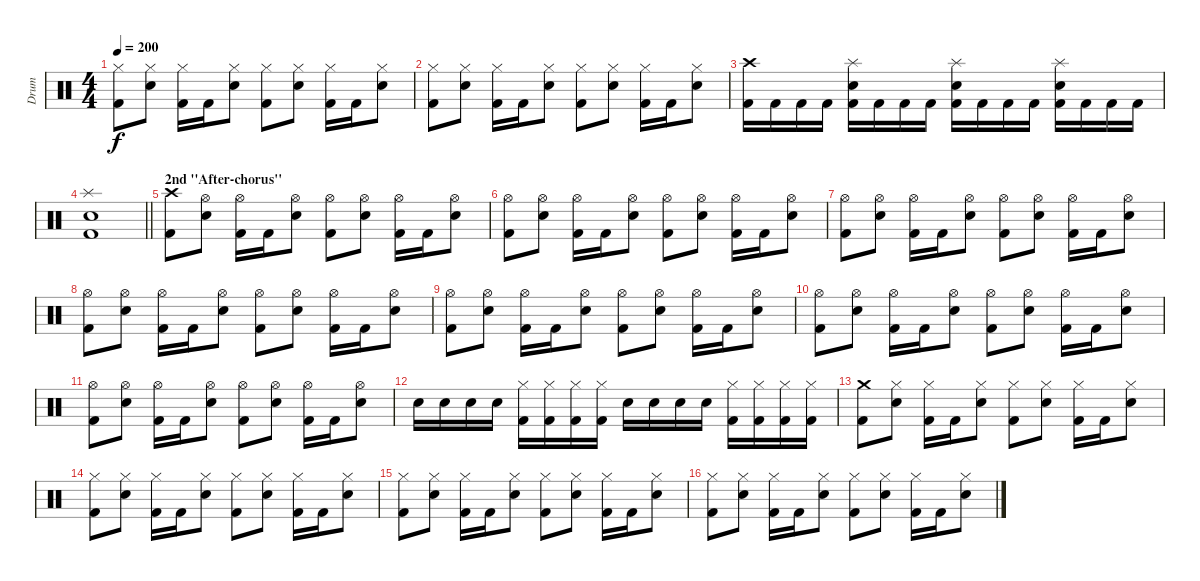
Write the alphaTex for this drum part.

\track ("Drum" "Drum") {instrument percussion}
\staff {score}
\articulation defaults
\ts (4 4)
\tempo 200
\clef neutral
\ks c
("Kick (hit) 2" "Hi-Hat (closed)").8{dy f} ("Snare (hit) 2" "Hi-Hat (closed)").8 ("Kick (hit) 2" "Hi-Hat (closed)").16 "Kick (hit) 2".16 ("Snare (hit) 2" "Hi-Hat (closed)").8 ("Kick (hit) 2" "Hi-Hat (closed)").8 ("Snare (hit) 2" "Hi-Hat (closed)").8 ("Kick (hit) 2" "Hi-Hat (closed)").16 "Kick (hit) 2".16 ("Snare (hit) 2" "Hi-Hat (closed)").8 |
("Kick (hit) 2" "Hi-Hat (closed)").8 ("Snare (hit) 2" "Hi-Hat (closed)").8 ("Kick (hit) 2" "Hi-Hat (closed)").16 "Kick (hit) 2".16 ("Snare (hit) 2" "Hi-Hat (closed)").8 ("Kick (hit) 2" "Hi-Hat (closed)").8 ("Snare (hit) 2" "Hi-Hat (closed)").8 ("Kick (hit) 2" "Hi-Hat (closed)").16 "Kick (hit) 2".16 ("Snare (hit) 2" "Hi-Hat (closed)").8 |
("Kick (hit) 2" "Crash high (hit)").16 "Kick (hit) 2".16 "Kick (hit) 2".16 "Kick (hit) 2".16 ("Kick (hit) 2" "Snare (hit) 2" "Splash (hit)").16 "Kick (hit) 2".16 "Kick (hit) 2".16 "Kick (hit) 2".16 ("Kick (hit) 2" "Snare (hit) 2" "Splash (hit)").16 "Kick (hit) 2".16 "Kick (hit) 2".16 "Kick (hit) 2".16 ("Kick (hit) 2" "Snare (hit) 2" "Splash (hit)").16 "Kick (hit) 2".16 "Kick (hit) 2".16 "Kick (hit) 2".16 |
\barLineRight lightlight
("Kick (hit) 2" "Snare (hit) 2" "Splash (hit)").1 |
\section ("" "2nd ''After-chorus''")
("Kick (hit) 2" "Crash high (hit)").8 ("Snare (hit) 2" "Hi-Hat (open)").8 ("Kick (hit) 2" "Hi-Hat (open)").16 "Kick (hit) 2".16 ("Snare (hit) 2" "Hi-Hat (open)").8 ("Kick (hit) 2" "Hi-Hat (open)").8 ("Snare (hit) 2" "Hi-Hat (open)").8 ("Kick (hit) 2" "Hi-Hat (open)").16 "Kick (hit) 2".16 ("Snare (hit) 2" "Hi-Hat (open)").8 |
("Kick (hit) 2" "Hi-Hat (open)").8 ("Snare (hit) 2" "Hi-Hat (open)").8 ("Kick (hit) 2" "Hi-Hat (open)").16 "Kick (hit) 2".16 ("Snare (hit) 2" "Hi-Hat (open)").8 ("Kick (hit) 2" "Hi-Hat (open)").8 ("Snare (hit) 2" "Hi-Hat (open)").8 ("Kick (hit) 2" "Hi-Hat (open)").16 "Kick (hit) 2".16 ("Snare (hit) 2" "Hi-Hat (open)").8 |
("Kick (hit) 2" "Hi-Hat (open)").8 ("Snare (hit) 2" "Hi-Hat (open)").8 ("Kick (hit) 2" "Hi-Hat (open)").16 "Kick (hit) 2".16 ("Snare (hit) 2" "Hi-Hat (open)").8 ("Kick (hit) 2" "Hi-Hat (open)").8 ("Snare (hit) 2" "Hi-Hat (open)").8 ("Kick (hit) 2" "Hi-Hat (open)").16 "Kick (hit) 2".16 ("Snare (hit) 2" "Hi-Hat (open)").8 |
("Kick (hit) 2" "Hi-Hat (open)").8 ("Snare (hit) 2" "Hi-Hat (open)").8 ("Kick (hit) 2" "Hi-Hat (open)").16 "Kick (hit) 2".16 ("Snare (hit) 2" "Hi-Hat (open)").8 ("Kick (hit) 2" "Hi-Hat (open)").8 ("Snare (hit) 2" "Hi-Hat (open)").8 ("Kick (hit) 2" "Hi-Hat (open)").16 "Kick (hit) 2".16 ("Snare (hit) 2" "Hi-Hat (open)").8 |
("Kick (hit) 2" "Hi-Hat (open)").8 ("Snare (hit) 2" "Hi-Hat (open)").8 ("Kick (hit) 2" "Hi-Hat (open)").16 "Kick (hit) 2".16 ("Snare (hit) 2" "Hi-Hat (open)").8 ("Kick (hit) 2" "Hi-Hat (open)").8 ("Snare (hit) 2" "Hi-Hat (open)").8 ("Kick (hit) 2" "Hi-Hat (open)").16 "Kick (hit) 2".16 ("Snare (hit) 2" "Hi-Hat (open)").8 |
("Kick (hit) 2" "Hi-Hat (open)").8 ("Snare (hit) 2" "Hi-Hat (open)").8 ("Kick (hit) 2" "Hi-Hat (open)").16 "Kick (hit) 2".16 ("Snare (hit) 2" "Hi-Hat (open)").8 ("Kick (hit) 2" "Hi-Hat (open)").8 ("Snare (hit) 2" "Hi-Hat (open)").8 ("Kick (hit) 2" "Hi-Hat (open)").16 "Kick (hit) 2".16 ("Snare (hit) 2" "Hi-Hat (open)").8 |
("Kick (hit) 2" "Hi-Hat (open)").8 ("Snare (hit) 2" "Hi-Hat (open)").8 ("Kick (hit) 2" "Hi-Hat (open)").16 "Kick (hit) 2".16 ("Snare (hit) 2" "Hi-Hat (open)").8 ("Kick (hit) 2" "Hi-Hat (open)").8 ("Snare (hit) 2" "Hi-Hat (open)").8 ("Kick (hit) 2" "Hi-Hat (open)").16 "Kick (hit) 2".16 ("Snare (hit) 2" "Hi-Hat (open)").8 |
"Snare (hit) 2".16 "Snare (hit) 2".16 "Snare (hit) 2".16 "Snare (hit) 2".16 ("Kick (hit) 2" "Hi-Hat (closed)").16 ("Kick (hit) 2" "Hi-Hat (closed)").16 ("Kick (hit) 2" "Hi-Hat (closed)").16 ("Kick (hit) 2" "Hi-Hat (closed)").16 "Snare (hit) 2".16 "Snare (hit) 2".16 "Snare (hit) 2".16 "Snare (hit) 2".16 ("Kick (hit) 2" "Hi-Hat (closed)").16 ("Kick (hit) 2" "Hi-Hat (closed)").16 ("Kick (hit) 2" "Hi-Hat (closed)").16 ("Kick (hit) 2" "Hi-Hat (closed)").16 |
("Kick (hit) 2" "Crash medium (hit)").8 ("Snare (hit) 2" "Hi-Hat (closed)").8 ("Kick (hit) 2" "Hi-Hat (closed)").16 "Kick (hit) 2".16 ("Snare (hit) 2" "Hi-Hat (closed)").8 ("Kick (hit) 2" "Hi-Hat (closed)").8 ("Snare (hit) 2" "Hi-Hat (closed)").8 ("Kick (hit) 2" "Hi-Hat (closed)").16 "Kick (hit) 2".16 ("Snare (hit) 2" "Hi-Hat (closed)").8 |
("Kick (hit) 2" "Hi-Hat (closed)").8 ("Snare (hit) 2" "Hi-Hat (closed)").8 ("Kick (hit) 2" "Hi-Hat (closed)").16 "Kick (hit) 2".16 ("Snare (hit) 2" "Hi-Hat (closed)").8 ("Kick (hit) 2" "Hi-Hat (closed)").8 ("Snare (hit) 2" "Hi-Hat (closed)").8 ("Kick (hit) 2" "Hi-Hat (closed)").16 "Kick (hit) 2".16 ("Snare (hit) 2" "Hi-Hat (closed)").8 |
("Kick (hit) 2" "Hi-Hat (closed)").8 ("Snare (hit) 2" "Hi-Hat (closed)").8 ("Kick (hit) 2" "Hi-Hat (closed)").16 "Kick (hit) 2".16 ("Snare (hit) 2" "Hi-Hat (closed)").8 ("Kick (hit) 2" "Hi-Hat (closed)").8 ("Snare (hit) 2" "Hi-Hat (closed)").8 ("Kick (hit) 2" "Hi-Hat (closed)").16 "Kick (hit) 2".16 ("Snare (hit) 2" "Hi-Hat (closed)").8 |
("Kick (hit) 2" "Hi-Hat (closed)").8 ("Snare (hit) 2" "Hi-Hat (closed)").8 ("Kick (hit) 2" "Hi-Hat (closed)").16 "Kick (hit) 2".16 ("Snare (hit) 2" "Hi-Hat (closed)").8 ("Kick (hit) 2" "Hi-Hat (closed)").8 ("Snare (hit) 2" "Hi-Hat (closed)").8 ("Kick (hit) 2" "Hi-Hat (closed)").16 "Kick (hit) 2".16 ("Snare (hit) 2" "Hi-Hat (closed)").8
